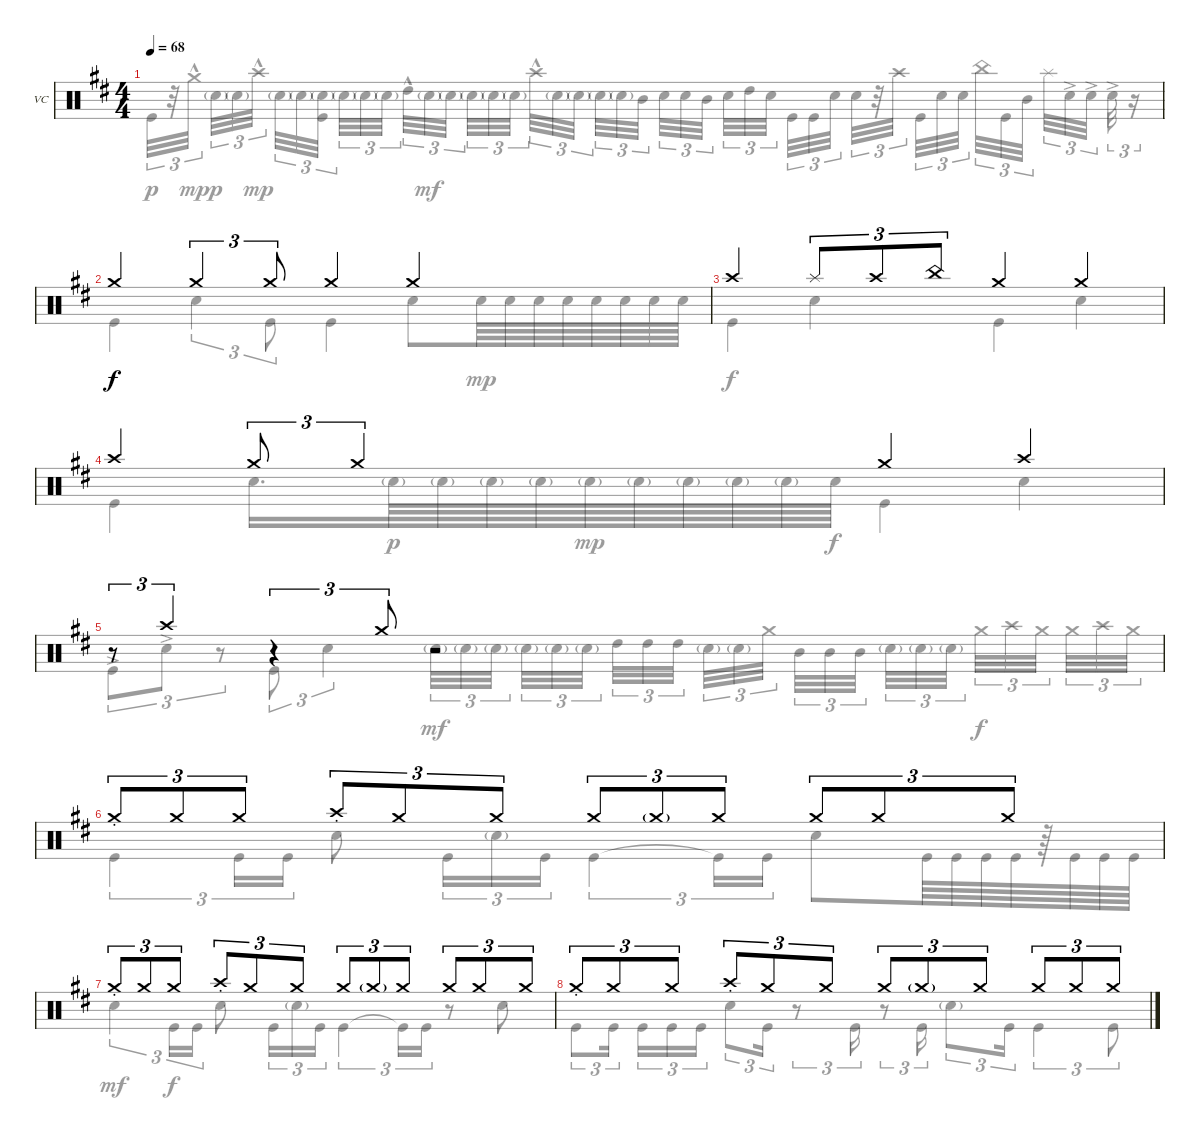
\defaultSystemsLayout 4
\bracketExtendMode nobrackets
\firstSystemTrackNameOrientation horizontal
\otherSystemsTrackNameOrientation horizontal
\track ("Vinnie Colaiuta" "VC") {instrument percussion}
\staff {score}
\articulation defaults
\voice
\ts (4 4)
\tempo 68
\clef neutral
\ks bminor
|
\scale
0.537209 "Crash medium (hit)".4 "Crash medium (hit)".4{tu (3 2)} "Crash medium (hit)".8{tu (3 2)} "Crash medium (hit)".4 "Crash medium (hit)".4 |
\scale
0.457875 "Crash high (hit)".4 "Splash (hit)".8{tu (3 2)} "Crash high (hit)".8{tu (3 2)} "China (hit)".8{tu (3 2)} "Crash medium (hit)".4 "Crash medium (hit)".4 |
\scale
0.599185 "Crash high (hit)".4 "Crash medium (hit)".8{tu (3 2)} "Crash medium (hit)".4{tu (3 2)} "Crash medium (hit)".4 "Crash high (hit)".4 |
\scale
0.40057 r.8{tu (3 2)} "Crash high (hit)".4{tu (3 2)} r.4{tu (3 2)} "Crash medium (hit)".8{tu (3 2)} r.2 |
"Crash medium (hit)"{st}.8{tu (3 2)} "Crash medium (hit)".8{tu (3 2)} "Crash medium (hit)".8{tu (3 2)} "Crash high (hit)"{st}.8{tu (3 2)} "Crash medium (hit)".8{tu (3 2)} "Crash medium (hit)".8{tu (3 2)} "Crash medium (hit)".8{tu (3 2)} "Crash medium (hit)"{g}.8{tu (3 2)} "Crash medium (hit)".8{tu (3 2)} "Crash medium (hit)".8{tu (3 2)} "Crash medium (hit)".8{tu (3 2)} "Crash medium (hit)".8{tu (3 2)} |
"Crash medium (hit)"{st}.8{tu (3 2)} "Crash medium (hit)".8{tu (3 2)} "Crash medium (hit)".8{tu (3 2)} "Crash high (hit)"{st}.8{tu (3 2)} "Crash medium (hit)".8{tu (3 2)} "Crash medium (hit)".8{tu (3 2)} "Crash medium (hit)".8{tu (3 2)} "Crash medium (hit)"{g}.8{tu (3 2)} "Crash medium (hit)".8{tu (3 2)} "Crash medium (hit)".8{tu (3 2)} "Crash medium (hit)".8{tu (3 2)} "Crash medium (hit)".8{tu (3 2)} |
"Crash medium (hit)"{st}.8{tu (3 2)} "Crash medium (hit)".8{tu (3 2)} "Crash medium (hit)".8{tu (3 2)} "Crash high (hit)"{st}.8{tu (3 2)} "Crash medium (hit)".8{tu (3 2)} "Crash medium (hit)".8{tu (3 2)} "Crash medium (hit)".8{tu (3 2)} "Crash medium (hit)"{g}.8{tu (3 2)} "Crash medium (hit)".8{tu (3 2)} "Crash medium (hit)".8{tu (3 2)} "Crash medium (hit)".8{tu (3 2)} "Crash medium (hit)".8{tu (3 2)}
\voice
\clef neutral
\ottava regular
\simile none
\ks bminor "Kick (hit)".32{tu (3 2) dy p}
r.32{tu (3 2)} "Crash medium (hit)"{hac}.32{tu (3 2) dy mp} "Snare (hit) 2"{g}.32{tu (3 2) dy p} "Snare (hit) 2"{g}.32{tu (3 2)} "Crash high (hit)"{hac}.32{tu (3 2) dy mp} "Snare (hit) 2"{g}.32{tu (3 2)} "Snare (hit) 2"{g}.32{tu (3 2)} ("Snare (hit) 2"{g} "Kick (hit)").32{tu (3 2)} "Snare (hit) 2"{g}.32{tu (3 2)} "Snare (hit) 2"{g}.32{tu (3 2)} "Snare (hit) 2"{g}.32{tu (3 2)} "High Tom (hit)"{hac}.32{tu (3 2)} "Snare (hit) 2"{g}.32{tu (3 2) dy mf} "Snare (hit) 2"{g}.32{tu (3 2)} "Snare (hit) 2"{g}.32{tu (3 2)} "Snare (hit) 2"{g}.32{tu (3 2)} "Snare (hit) 2"{g}.32{tu (3 2)} "Crash high (hit)"{hac}.32{tu (3 2)} "Snare (hit) 2"{g}.32{tu (3 2)} "Snare (hit) 2"{g}.32{tu (3 2)} "Snare (hit) 2"{g}.32{tu (3 2)} "Snare (hit) 2"{g}.32{tu (3 2)} "Mid Tom (hit)".32{tu (3 2)} "Snare (hit) 2".32{tu (3 2)} "Snare (hit) 2".32{tu (3 2)} "Mid Tom (hit)".32{tu (3 2)} "Snare (hit) 2".32{tu (3 2)} "High Tom (hit)".32{tu (3 2)} "Snare (hit) 2".32{tu (3 2)} "Kick (hit)".32{tu (3 2)} "Kick (hit)".32{tu (3 2)} "Snare (hit) 2".32{tu (3 2)} "Snare (hit) 2".32{tu (3 2)} r.32{tu (3 2)} "Crash high (hit)".32{tu (3 2)} "Kick (hit)".32{tu (3 2)} "Snare (hit) 2".32{tu (3 2)} "Snare (hit) 2".32{tu (3 2)} "China (hit)".32{tu (3 2)} "Kick (hit)".32{tu (3 2)} "Mid Tom (hit)".32{tu (3 2)} "Splash (hit)".32{tu (3 2)} "Snare (hit) 2"{ac}.32{tu (3 2)} "Snare (hit) 2"{ac}.32{tu (3 2)} "Snare (hit) 2"{ac}.32{tu (3 2)} r.16{tu (3 2)} |
"Kick (hit)".4{dy f} "Snare (hit) 2".4{tu (3 2)} "Kick (hit)".8{tu (3 2)} "Kick (hit)".4 "Snare (hit) 2".8 "Snare (hit) 2".64{dy mp} "Snare (hit) 2".64 "Snare (hit) 2".64 "Snare (hit) 2".64 "Snare (hit) 2".64 "Snare (hit) 2".64 "Snare (hit) 2".64 "Snare (hit) 2".64 |
"Kick (hit)".4{dy f} "Snare (hit) 2".4 "Kick (hit)".4 "Snare (hit) 2".4 |
"Kick (hit)".4 "Snare (hit) 2".16{d} "Snare (hit) 2"{g}.64{dy p} "Snare (hit) 2"{g}.64 "Snare (hit) 2"{g}.64 "Snare (hit) 2"{g}.64 "Snare (hit) 2"{g}.64{dy mp} "Snare (hit) 2"{g}.64 "Snare (hit) 2"{g}.64 "Snare (hit) 2"{g}.64 "Snare (hit) 2"{g}.64 "Snare (hit) 2".64{dy f} "Kick (hit)".4 "Snare (hit) 2".4 |
"Kick (hit)"{ac}.8{tu (3 2)} "Snare (hit) 2"{ac}.8{tu (3 2)} r.8{tu (3 2)} "Kick (hit)".8{tu (3 2)} "Snare (hit) 2".4{tu (3 2)} "Snare (hit) 2"{g}.32{tu (3 2) dy mf} "Snare (hit) 2"{g}.32{tu (3 2)} "Snare (hit) 2"{g}.32{tu (3 2)} "Snare (hit) 2"{g}.32{tu (3 2)} "Snare (hit) 2"{g}.32{tu (3 2)} "Snare (hit) 2"{g}.32{tu (3 2)} "High Tom (hit)".32{tu (3 2)} "High Tom (hit)".32{tu (3 2)} "High Tom (hit)".32{tu (3 2)} "Snare (hit) 2"{g}.32{tu (3 2)} "Snare (hit) 2"{g}.32{tu (3 2)} "Crash medium (hit)".32{tu (3 2)} "Mid Tom (hit)".32{tu (3 2)} "Mid Tom (hit)".32{tu (3 2)} "Mid Tom (hit)".32{tu (3 2)} "Snare (hit) 2"{g}.32{tu (3 2)} "Snare (hit) 2"{g}.32{tu (3 2)} "Snare (hit) 2"{g}.32{tu (3 2)} "Crash medium (hit)".32{tu (3 2) dy f} "Crash high (hit)".32{tu (3 2)} "Crash medium (hit)".32{tu (3 2)} "Crash medium (hit)".32{tu (3 2)} "Crash high (hit)".32{tu (3 2)} "Crash medium (hit)".32{tu (3 2)} |
"Kick (hit)".4{tu (3 2)} "Kick (hit)".16{tu (3 2)} "Kick (hit)".16{tu (3 2)} "Snare (hit) 2".8 "Kick (hit)".16{tu (3 2)} "Snare (hit) 2"{g}.16{tu (3 2)} "Kick (hit)".16{tu (3 2)} "Kick (hit)".4{tu (3 2)} "Kick (hit)"{t}.16{tu (3 2)} "Kick (hit)".16{tu (3 2)} "Snare (hit) 2".8 "Kick (hit)".64 "Kick (hit)".64 "Kick (hit)".64 "Kick (hit)".64 r.64 "Kick (hit)".64 "Kick (hit)".64 "Kick (hit)".64 |
"Snare (hit) 2".4{tu (3 2) dy mf} "Kick (hit)".16{tu (3 2) dy f} "Kick (hit)".16{tu (3 2)} "Snare (hit) 2".8 "Kick (hit)".16{tu (3 2)} "Snare (hit) 2"{g}.16{tu (3 2)} "Kick (hit)".16{tu (3 2)} "Kick (hit)".4{tu (3 2)} "Kick (hit)"{t}.16{tu (3 2)} "Kick (hit)".16{tu (3 2)} r.8 "Snare (hit) 2".8 |
"Kick (hit)".8{tu (3 2)} "Kick (hit)".16{tu (3 2)} "Kick (hit)".16{tu (3 2)} "Kick (hit)".16{tu (3 2)} "Kick (hit)".16{tu (3 2)} "Snare (hit) 2".8{tu (3 2)} "Kick (hit)".16{tu (3 2)} r.8{tu (3 2)} "Kick (hit)".16{tu (3 2)} r.8{tu (3 2)} "Kick (hit)".16{tu (3 2)} "Snare (hit) 2"{g}.8{tu (3 2)} "Kick (hit)".16{tu (3 2)} "Kick (hit)".4{tu (3 2)} "Kick (hit)".8{tu (3 2)}
